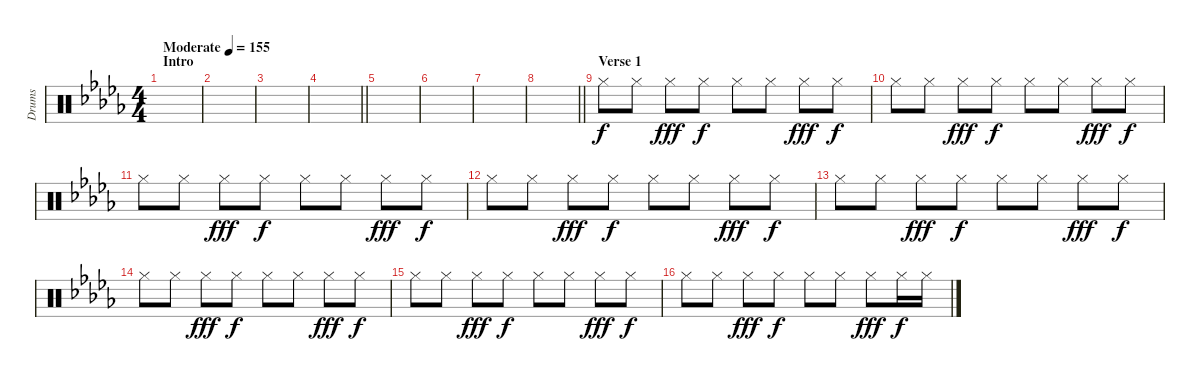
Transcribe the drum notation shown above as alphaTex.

\track ("Drums" "Drums") {instrument percussion}
\staff {score}
\articulation defaults
\ts (4 4)
\section ("" "Intro")
\tempo (155 "Moderate")
\clef neutral
\ks db
|
|
|
\barLineRight lightlight
|
|
|
|
\barLineRight lightlight
|
\section ("" "Verse 1")
"Hi-Hat (closed)".8 "Hi-Hat (closed)".8 "Hi-Hat (closed)".8{dy fff} "Hi-Hat (closed)".8{dy f} "Hi-Hat (closed)".8 "Hi-Hat (closed)".8 "Hi-Hat (closed)".8{dy fff} "Hi-Hat (closed)".8{dy f} |
"Hi-Hat (closed)".8 "Hi-Hat (closed)".8 "Hi-Hat (closed)".8{dy fff} "Hi-Hat (closed)".8{dy f} "Hi-Hat (closed)".8 "Hi-Hat (closed)".8 "Hi-Hat (closed)".8{dy fff} "Hi-Hat (closed)".8{dy f} |
"Hi-Hat (closed)".8 "Hi-Hat (closed)".8 "Hi-Hat (closed)".8{dy fff} "Hi-Hat (closed)".8{dy f} "Hi-Hat (closed)".8 "Hi-Hat (closed)".8 "Hi-Hat (closed)".8{dy fff} "Hi-Hat (closed)".8{dy f} |
"Hi-Hat (closed)".8 "Hi-Hat (closed)".8 "Hi-Hat (closed)".8{dy fff} "Hi-Hat (closed)".8{dy f} "Hi-Hat (closed)".8 "Hi-Hat (closed)".8 "Hi-Hat (closed)".8{dy fff} "Hi-Hat (closed)".8{dy f} |
"Hi-Hat (closed)".8 "Hi-Hat (closed)".8 "Hi-Hat (closed)".8{dy fff} "Hi-Hat (closed)".8{dy f} "Hi-Hat (closed)".8 "Hi-Hat (closed)".8 "Hi-Hat (closed)".8{dy fff} "Hi-Hat (closed)".8{dy f} |
"Hi-Hat (closed)".8 "Hi-Hat (closed)".8 "Hi-Hat (closed)".8{dy fff} "Hi-Hat (closed)".8{dy f} "Hi-Hat (closed)".8 "Hi-Hat (closed)".8 "Hi-Hat (closed)".8{dy fff} "Hi-Hat (closed)".8{dy f} |
"Hi-Hat (closed)".8 "Hi-Hat (closed)".8 "Hi-Hat (closed)".8{dy fff} "Hi-Hat (closed)".8{dy f} "Hi-Hat (closed)".8 "Hi-Hat (closed)".8 "Hi-Hat (closed)".8{dy fff} "Hi-Hat (closed)".8{dy f} |
"Hi-Hat (closed)".8 "Hi-Hat (closed)".8 "Hi-Hat (closed)".8{dy fff} "Hi-Hat (closed)".8{dy f} "Hi-Hat (closed)".8 "Hi-Hat (closed)".8 "Hi-Hat (closed)".8{dy fff} "Hi-Hat (closed)".16{dy f} "Hi-Hat (closed)".16
